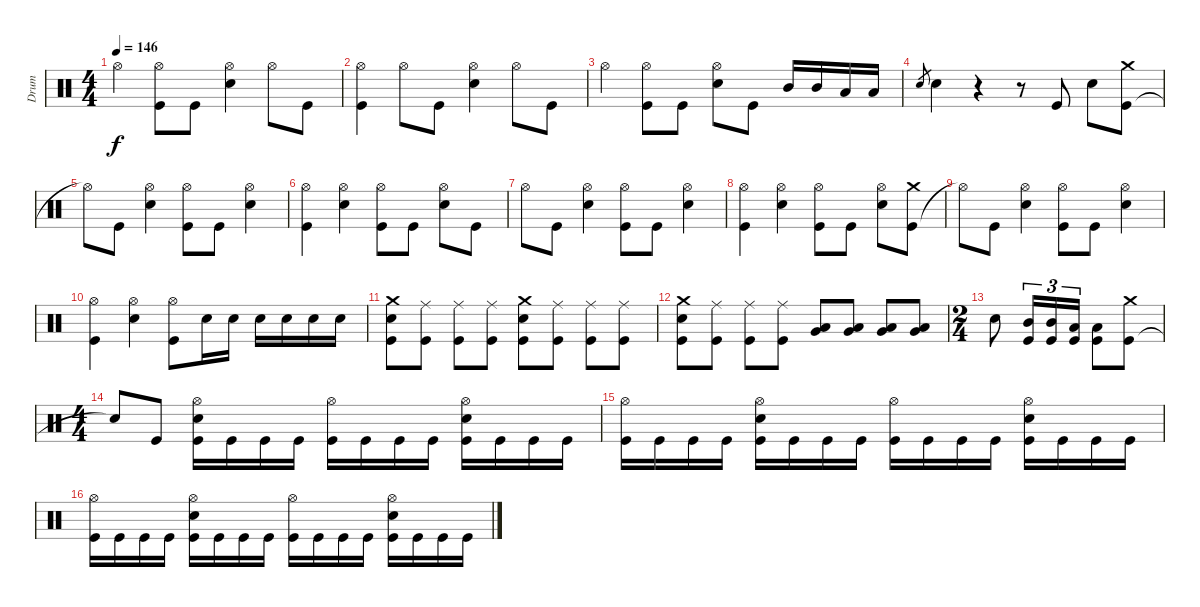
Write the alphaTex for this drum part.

\track ("Drum" "Drum") {instrument percussion}
\staff {score}
\articulation defaults
\ts (4 4)
\tempo 146
\clef neutral
\ks c "Hi-Hat (open)".4{dy f}
("Kick (hit)" "Hi-Hat (open)").8 "Kick (hit)".8 ("Electric Snare (hit)" "Hi-Hat (open)").4 "Hi-Hat (open)".8 "Kick (hit)".8 |
("Kick (hit)" "Hi-Hat (open)").4 "Hi-Hat (open)".8 "Kick (hit)".8 ("Electric Snare (hit)" "Hi-Hat (open)").4 "Hi-Hat (open)".8 "Kick (hit)".8 |
"Hi-Hat (open)".4 ("Kick (hit)" "Hi-Hat (open)").8 "Kick (hit)".8 ("Electric Snare (hit)" "Hi-Hat (open)").8 "Kick (hit)".8 "Mid Tom (hit)".16 "Mid Tom (hit)".16 "Low Tom (hit)".16 "Low Tom (hit)".16 |
"Electric Snare (hit)".8{gr} "Electric Snare (hit)".4 r.4 r.8 "Kick (hit)".8 "Electric Snare (hit)".8 ("Kick (hit)" "Crash medium (hit)").8 |
"Hi-Hat (open)"{t}.8 "Kick (hit)".8 ("Electric Snare (hit)" "Hi-Hat (open)").4 ("Kick (hit)" "Hi-Hat (open)").8 "Kick (hit)".8 ("Electric Snare (hit)" "Hi-Hat (open)").4 |
("Kick (hit)" "Hi-Hat (open)").4 ("Electric Snare (hit)" "Hi-Hat (open)").4 ("Kick (hit)" "Hi-Hat (open)").8 "Kick (hit)".8 ("Electric Snare (hit)" "Hi-Hat (open)").8 "Kick (hit)".8 |
"Hi-Hat (open)".8 "Kick (hit)".8 ("Electric Snare (hit)" "Hi-Hat (open)").4 ("Kick (hit)" "Hi-Hat (open)").8 "Kick (hit)".8 ("Electric Snare (hit)" "Hi-Hat (open)").4 |
("Kick (hit)" "Hi-Hat (open)").4 ("Electric Snare (hit)" "Hi-Hat (open)").4 ("Kick (hit)" "Hi-Hat (open)").8 "Kick (hit)".8 ("Electric Snare (hit)" "Hi-Hat (open)").8 ("Kick (hit)" "Crash medium (hit)").8 |
"Hi-Hat (open)"{t}.8 "Kick (hit)".8 ("Electric Snare (hit)" "Hi-Hat (open)").4 ("Kick (hit)" "Hi-Hat (open)").8 "Kick (hit)".8 ("Electric Snare (hit)" "Hi-Hat (open)").4 |
("Kick (hit)" "Hi-Hat (open)").4 ("Electric Snare (hit)" "Hi-Hat (open)").4 ("Kick (hit)" "Hi-Hat (open)").8 "Electric Snare (hit)".16 "Electric Snare (hit)".16 "Electric Snare (hit)".16 "Electric Snare (hit)".16 "Electric Snare (hit)".16 "Electric Snare (hit)".16 |
("Kick (hit)" "Electric Snare (hit)" "Crash medium (hit)").8 ("Kick (hit)" "Ride (middle)").8 ("Kick (hit)" "Ride (middle)").8 ("Kick (hit)" "Ride (middle)").8 ("Kick (hit)" "Electric Snare (hit)" "Crash medium (hit)").8 ("Kick (hit)" "Ride (middle)").8 ("Kick (hit)" "Ride (middle)").8 ("Kick (hit)" "Ride (middle)").8 |
("Kick (hit)" "Electric Snare (hit)" "Crash medium (hit)").8 ("Kick (hit)" "Ride (middle)").8 ("Kick (hit)" "Ride (middle)").8 ("Kick (hit)" "Ride (middle)").8 ("Very Low Tom (hit)" "Low Tom (hit)").8 ("Very Low Tom (hit)" "Low Tom (hit)").8 ("Very Low Tom (hit)" "Low Tom (hit)").8 ("Very Low Tom (hit)" "Low Tom (hit)").8 |
\ts (2 4)
"Electric Snare (hit)".8 ("Kick (hit)" "Mid Tom (hit)").16{tu (3 2)} ("Kick (hit)" "Mid Tom (hit)").16{tu (3 2)} ("Kick (hit)" "Low Tom (hit)").16{tu (3 2)} ("Kick (hit)" "Low Tom (hit)").8 ("Kick (hit)" "Crash medium (hit)").8 |
\ts (4 4)
"Snare (hit)"{t}.8 "Kick (hit)".8 ("Kick (hit)" "Electric Snare (hit)" "Hi-Hat (open)").16 "Kick (hit)".16 "Kick (hit)".16 "Kick (hit)".16 ("Kick (hit)" "Hi-Hat (open)").16 "Kick (hit)".16 "Kick (hit)".16 "Kick (hit)".16 ("Kick (hit)" "Electric Snare (hit)" "Hi-Hat (open)").16 "Kick (hit)".16 "Kick (hit)".16 "Kick (hit)".16 |
("Kick (hit)" "Hi-Hat (open)").16 "Kick (hit)".16 "Kick (hit)".16 "Kick (hit)".16 ("Kick (hit)" "Electric Snare (hit)" "Hi-Hat (open)").16 "Kick (hit)".16 "Kick (hit)".16 "Kick (hit)".16 ("Kick (hit)" "Hi-Hat (open)").16 "Kick (hit)".16 "Kick (hit)".16 "Kick (hit)".16 ("Kick (hit)" "Electric Snare (hit)" "Hi-Hat (open)").16 "Kick (hit)".16 "Kick (hit)".16 "Kick (hit)".16 |
("Kick (hit)" "Hi-Hat (open)").16 "Kick (hit)".16 "Kick (hit)".16 "Kick (hit)".16 ("Kick (hit)" "Electric Snare (hit)" "Hi-Hat (open)").16 "Kick (hit)".16 "Kick (hit)".16 "Kick (hit)".16 ("Kick (hit)" "Hi-Hat (open)").16 "Kick (hit)".16 "Kick (hit)".16 "Kick (hit)".16 ("Kick (hit)" "Electric Snare (hit)" "Hi-Hat (open)").16 "Kick (hit)".16 "Kick (hit)".16 "Kick (hit)".16
